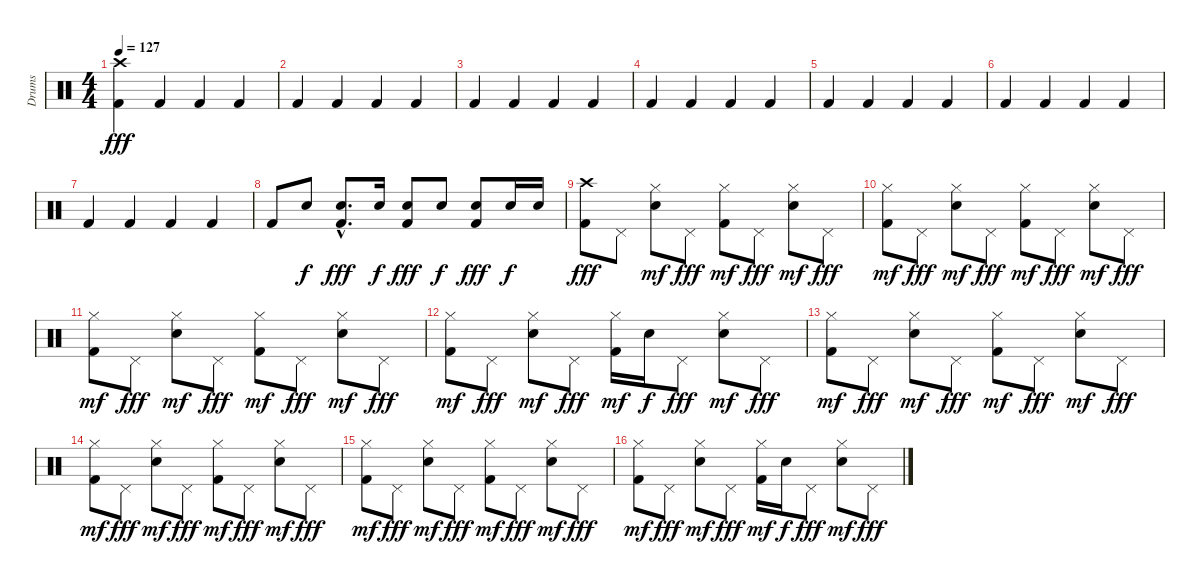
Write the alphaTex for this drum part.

\track ("Drums" "Drums") {instrument percussion}
\staff {score}
\articulation defaults
\ts (4 4)
\tempo 127
\clef neutral
\ks c
("Kick (hit) 2" "Crash high (hit)").4{dy fff} "Kick (hit) 2".4 "Kick (hit) 2".4 "Kick (hit) 2".4 |
"Kick (hit) 2".4 "Kick (hit) 2".4 "Kick (hit) 2".4 "Kick (hit) 2".4 |
"Kick (hit) 2".4 "Kick (hit) 2".4 "Kick (hit) 2".4 "Kick (hit) 2".4 |
"Kick (hit) 2".4 "Kick (hit) 2".4 "Kick (hit) 2".4 "Kick (hit) 2".4 |
"Kick (hit) 2".4 "Kick (hit) 2".4 "Kick (hit) 2".4 "Kick (hit) 2".4 |
"Kick (hit) 2".4 "Kick (hit) 2".4 "Kick (hit) 2".4 "Kick (hit) 2".4 |
"Kick (hit) 2".4 "Kick (hit) 2".4 "Kick (hit) 2".4 "Kick (hit) 2".4 |
"Kick (hit) 2".8 "Electric Snare (hit)".8{dy f} ("Kick (hit) 2"{hac} "Electric Snare (hit)"{hac}).8{d dy fff} "Electric Snare (hit)".16{dy f} ("Kick (hit) 2" "Electric Snare (hit)").8{dy fff} "Electric Snare (hit)".8{dy f} ("Kick (hit) 2" "Electric Snare (hit)").8{dy fff} "Electric Snare (hit)".16{dy f} "Electric Snare (hit)".16 |
("Kick (hit) 2" "Crash high (hit)").8{dy fff} "Pedal Hi-Hat (hit)".8 ("Hi-Hat (closed)" "Electric Snare (hit)").8{dy mf} "Pedal Hi-Hat (hit)".8{dy fff} ("Kick (hit) 2" "Hi-Hat (closed)").8{dy mf} "Pedal Hi-Hat (hit)".8{dy fff} ("Hi-Hat (closed)" "Electric Snare (hit)").8{dy mf} "Pedal Hi-Hat (hit)".8{dy fff} |
("Kick (hit) 2" "Hi-Hat (closed)").8{dy mf} "Pedal Hi-Hat (hit)".8{dy fff} ("Hi-Hat (closed)" "Electric Snare (hit)").8{dy mf} "Pedal Hi-Hat (hit)".8{dy fff} ("Kick (hit) 2" "Hi-Hat (closed)").8{dy mf} "Pedal Hi-Hat (hit)".8{dy fff} ("Hi-Hat (closed)" "Electric Snare (hit)").8{dy mf} "Pedal Hi-Hat (hit)".8{dy fff} |
("Kick (hit) 2" "Hi-Hat (closed)").8{dy mf} "Pedal Hi-Hat (hit)".8{dy fff} ("Hi-Hat (closed)" "Electric Snare (hit)").8{dy mf} "Pedal Hi-Hat (hit)".8{dy fff} ("Kick (hit) 2" "Hi-Hat (closed)").8{dy mf} "Pedal Hi-Hat (hit)".8{dy fff} ("Hi-Hat (closed)" "Electric Snare (hit)").8{dy mf} "Pedal Hi-Hat (hit)".8{dy fff} |
("Kick (hit) 2" "Hi-Hat (closed)").8{dy mf} "Pedal Hi-Hat (hit)".8{dy fff} ("Hi-Hat (closed)" "Electric Snare (hit)").8{dy mf} "Pedal Hi-Hat (hit)".8{dy fff} ("Kick (hit) 2" "Hi-Hat (closed)").16{dy mf} "Electric Snare (hit)".16{dy f} "Pedal Hi-Hat (hit)".8{dy fff} ("Hi-Hat (closed)" "Electric Snare (hit)").8{dy mf} "Pedal Hi-Hat (hit)".8{dy fff} |
("Kick (hit) 2" "Hi-Hat (closed)").8{dy mf} "Pedal Hi-Hat (hit)".8{dy fff} ("Hi-Hat (closed)" "Electric Snare (hit)").8{dy mf} "Pedal Hi-Hat (hit)".8{dy fff} ("Kick (hit) 2" "Hi-Hat (closed)").8{dy mf} "Pedal Hi-Hat (hit)".8{dy fff} ("Hi-Hat (closed)" "Electric Snare (hit)").8{dy mf} "Pedal Hi-Hat (hit)".8{dy fff} |
("Kick (hit) 2" "Hi-Hat (closed)").8{dy mf} "Pedal Hi-Hat (hit)".8{dy fff} ("Hi-Hat (closed)" "Electric Snare (hit)").8{dy mf} "Pedal Hi-Hat (hit)".8{dy fff} ("Kick (hit) 2" "Hi-Hat (closed)").8{dy mf} "Pedal Hi-Hat (hit)".8{dy fff} ("Hi-Hat (closed)" "Electric Snare (hit)").8{dy mf} "Pedal Hi-Hat (hit)".8{dy fff} |
("Kick (hit) 2" "Hi-Hat (closed)").8{dy mf} "Pedal Hi-Hat (hit)".8{dy fff} ("Hi-Hat (closed)" "Electric Snare (hit)").8{dy mf} "Pedal Hi-Hat (hit)".8{dy fff} ("Kick (hit) 2" "Hi-Hat (closed)").8{dy mf} "Pedal Hi-Hat (hit)".8{dy fff} ("Hi-Hat (closed)" "Electric Snare (hit)").8{dy mf} "Pedal Hi-Hat (hit)".8{dy fff} |
("Kick (hit) 2" "Hi-Hat (closed)").8{dy mf} "Pedal Hi-Hat (hit)".8{dy fff} ("Hi-Hat (closed)" "Electric Snare (hit)").8{dy mf} "Pedal Hi-Hat (hit)".8{dy fff} ("Kick (hit) 2" "Hi-Hat (closed)").16{dy mf} "Electric Snare (hit)".16{dy f} "Pedal Hi-Hat (hit)".8{dy fff} ("Hi-Hat (closed)" "Electric Snare (hit)").8{dy mf} "Pedal Hi-Hat (hit)".8{dy fff}
